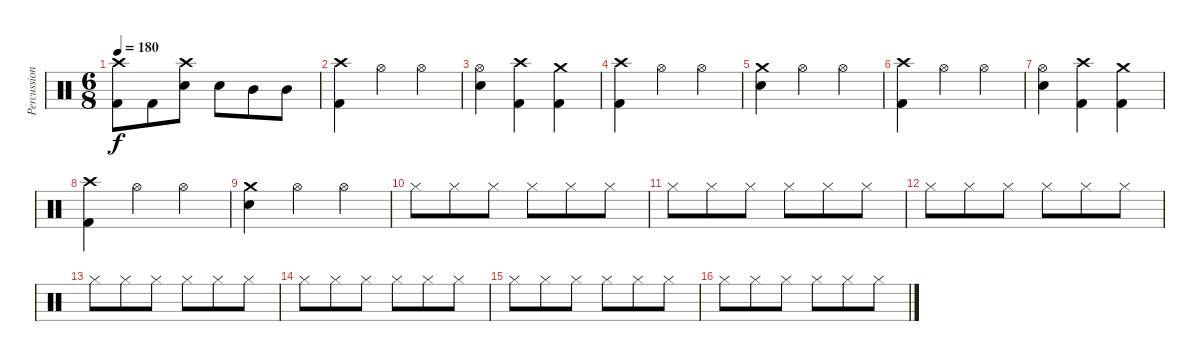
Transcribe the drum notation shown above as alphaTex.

\track ("Percussion" "Percussion") {instrument percussion}
\staff {score}
\articulation defaults
\ts (6 8)
\tempo 180
\clef neutral
\ks c
("Crash high (hit)" "Kick (hit) 2").8{dy f} "Kick (hit) 2".8 ("Crash high (hit)" "Electric Snare (hit)").8 "Electric Snare (hit)".8 "Mid Tom (hit)".8 "Mid Tom (hit)".8 |
("Crash high (hit)" "Kick (hit) 2").4 "Hi-Hat (open)".4 "Hi-Hat (open)".4 |
("Hi-Hat (open)" "Electric Snare (hit)").4 ("Crash high (hit)" "Kick (hit) 2").4 ("Crash medium (hit)" "Kick (hit) 2").4 |
("Crash high (hit)" "Kick (hit) 2").4 "Hi-Hat (open)".4 "Hi-Hat (open)".4 |
("Crash medium (hit)" "Electric Snare (hit)").4 "Hi-Hat (open)".4 "Hi-Hat (open)".4 |
("Crash high (hit)" "Kick (hit) 2").4 "Hi-Hat (open)".4 "Hi-Hat (open)".4 |
("Hi-Hat (open)" "Electric Snare (hit)").4 ("Crash high (hit)" "Kick (hit) 2").4 ("Crash medium (hit)" "Kick (hit) 2").4 |
("Crash high (hit)" "Kick (hit) 2").4 "Hi-Hat (open)".4 "Hi-Hat (open)".4 |
("Crash medium (hit)" "Electric Snare (hit)").4 "Hi-Hat (open)".4 "Hi-Hat (open)".4 |
"Hi-Hat (closed)".8 "Hi-Hat (closed)".8 "Hi-Hat (closed)".8 "Hi-Hat (closed)".8 "Hi-Hat (closed)".8 "Hi-Hat (closed)".8 |
"Hi-Hat (closed)".8 "Hi-Hat (closed)".8 "Hi-Hat (closed)".8 "Hi-Hat (closed)".8 "Hi-Hat (closed)".8 "Hi-Hat (closed)".8 |
"Hi-Hat (closed)".8 "Hi-Hat (closed)".8 "Hi-Hat (closed)".8 "Hi-Hat (closed)".8 "Hi-Hat (closed)".8 "Hi-Hat (closed)".8 |
"Hi-Hat (closed)".8 "Hi-Hat (closed)".8 "Hi-Hat (closed)".8 "Hi-Hat (closed)".8 "Hi-Hat (closed)".8 "Hi-Hat (closed)".8 |
"Hi-Hat (closed)".8 "Hi-Hat (closed)".8 "Hi-Hat (closed)".8 "Hi-Hat (closed)".8 "Hi-Hat (closed)".8 "Hi-Hat (closed)".8 |
"Hi-Hat (closed)".8 "Hi-Hat (closed)".8 "Hi-Hat (closed)".8 "Hi-Hat (closed)".8 "Hi-Hat (closed)".8 "Hi-Hat (closed)".8 |
"Hi-Hat (closed)".8 "Hi-Hat (closed)".8 "Hi-Hat (closed)".8 "Hi-Hat (closed)".8 "Hi-Hat (closed)".8 "Hi-Hat (closed)".8
